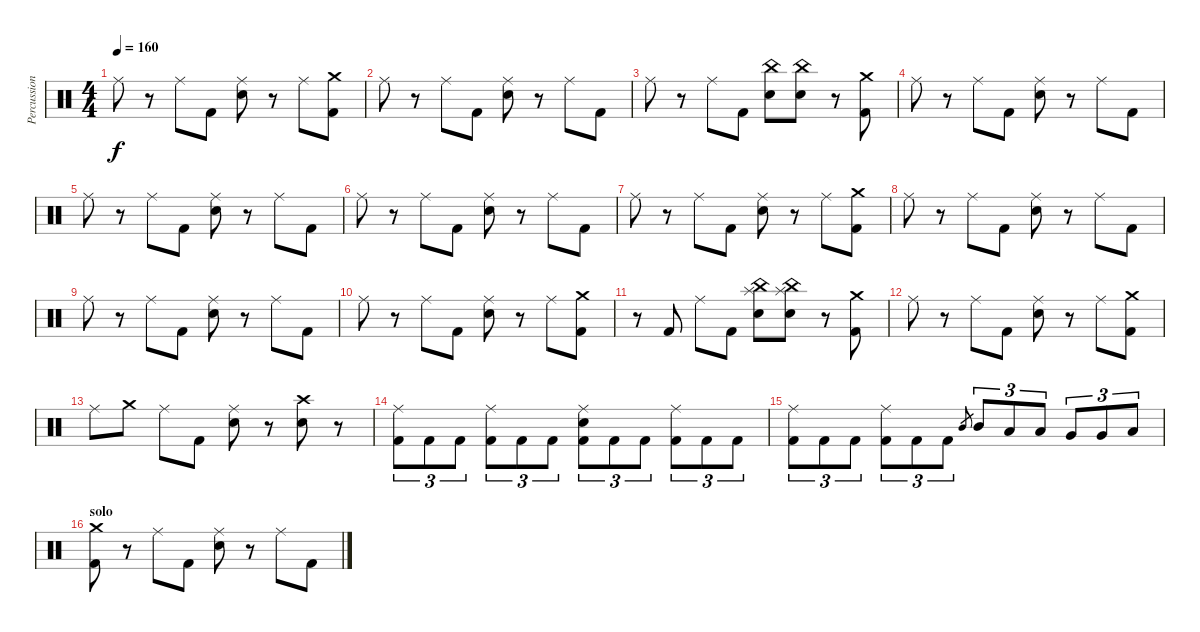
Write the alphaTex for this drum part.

\track ("Percussion" "Percussion") {instrument percussion}
\staff {score}
\articulation defaults
\ts (4 4)
\tempo 160
\clef neutral
\ks c "Ride (middle)".8{dy f}
r.8 "Ride (middle)".8 "Kick (hit) 2".8 ("Ride (middle)" "Electric Snare (hit)").8 r.8 "Ride (middle)".8 ("Crash medium (hit)" "Kick (hit) 2").8 |
"Ride (middle)".8 r.8 "Ride (middle)".8 "Kick (hit) 2".8 ("Ride (middle)" "Electric Snare (hit)").8 r.8 "Ride (middle)".8 "Kick (hit) 2".8 |
"Ride (middle)".8 r.8 "Ride (middle)".8 "Kick (hit) 2".8 ("China (hit)" "Electric Snare (hit)").8 ("China (hit)" "Electric Snare (hit)").8 r.8 ("Crash medium (hit)" "Kick (hit) 2").8 |
"Ride (middle)".8 r.8 "Ride (middle)".8 "Kick (hit) 2".8 ("Ride (middle)" "Electric Snare (hit)").8 r.8 "Ride (middle)".8 "Kick (hit) 2".8 |
"Ride (middle)".8 r.8 "Ride (middle)".8 "Kick (hit) 2".8 ("Ride (middle)" "Electric Snare (hit)").8 r.8 "Ride (middle)".8 "Kick (hit) 2".8 |
"Ride (middle)".8 r.8 "Ride (middle)".8 "Kick (hit) 2".8 ("Ride (middle)" "Electric Snare (hit)").8 r.8 "Ride (middle)".8 "Kick (hit) 2".8 |
"Ride (middle)".8 r.8 "Ride (middle)".8 "Kick (hit) 2".8 ("Ride (middle)" "Electric Snare (hit)").8 r.8 "Ride (middle)".8 ("Crash medium (hit)" "Kick (hit) 2").8 |
"Ride (middle)".8 r.8 "Ride (middle)".8 "Kick (hit) 2".8 ("Ride (middle)" "Electric Snare (hit)").8 r.8 "Ride (middle)".8 "Kick (hit) 2".8 |
"Ride (middle)".8 r.8 "Ride (middle)".8 "Kick (hit) 2".8 ("Ride (middle)" "Electric Snare (hit)").8 r.8 "Ride (middle)".8 "Kick (hit) 2".8 |
"Ride (middle)".8 r.8 "Ride (middle)".8 "Kick (hit) 2".8 ("Ride (middle)" "Electric Snare (hit)").8 r.8 "Ride (middle)".8 ("Crash medium (hit)" "Kick (hit) 2").8 |
r.8 "Kick (hit) 2".8 "Ride (middle)".8 "Kick (hit) 2".8 ("China (hit)" "Electric Snare (hit)" "Splash (hit)").8 ("China (hit)" "Electric Snare (hit)" "Splash (hit)").8 r.8 ("Crash medium (hit)" "Kick (hit) 2").8 |
"Ride (middle)".8 r.8 "Ride (middle)".8 "Kick (hit) 2".8 ("Ride (middle)" "Electric Snare (hit)").8 r.8 "Ride (middle)".8 ("Crash medium (hit)" "Kick (hit) 2").8 |
"Ride (middle)".8 "Crash medium (hit)".8 "Ride (middle)".8 "Kick (hit) 2".8 ("Ride (middle)" "Electric Snare (hit)").8 r.8 ("Crash high (hit)" "Electric Snare (hit)").8 r.8 |
("Ride (middle)" "Kick (hit) 2").8{tu (3 2)} "Kick (hit) 2".8{tu (3 2)} "Kick (hit) 2".8{tu (3 2)} ("Ride (middle)" "Kick (hit) 2").8{tu (3 2)} "Kick (hit) 2".8{tu (3 2)} "Kick (hit) 2".8{tu (3 2)} ("Ride (middle)" "Kick (hit) 2" "Electric Snare (hit)").8{tu (3 2)} "Kick (hit) 2".8{tu (3 2)} "Kick (hit) 2".8{tu (3 2)} ("Ride (middle)" "Kick (hit) 2").8{tu (3 2)} "Kick (hit) 2".8{tu (3 2)} "Kick (hit) 2".8{tu (3 2)} |
("Ride (middle)" "Kick (hit) 2").8{tu (3 2)} "Kick (hit) 2".8{tu (3 2)} "Kick (hit) 2".8{tu (3 2)} ("Ride (middle)" "Kick (hit) 2").8{tu (3 2)} "Kick (hit) 2".8{tu (3 2)} "Kick (hit) 2".8{tu (3 2)} "Mid Tom (hit)".8{gr} "Mid Tom (hit)".8{tu (3 2)} "Low Tom (hit)".8{tu (3 2)} "Low Tom (hit)".8{tu (3 2)} "Very Low Tom (hit)".8{tu (3 2)} "Very Low Tom (hit)".8{tu (3 2)} "Low Floor Tom (hit)".8{tu (3 2)} |
\section ("" "solo")
("Crash medium (hit)" "Kick (hit) 2").8 r.8 "Ride (middle)".8 "Kick (hit) 2".8 ("Ride (middle)" "Electric Snare (hit)").8 r.8 "Ride (middle)".8 "Kick (hit) 2".8
